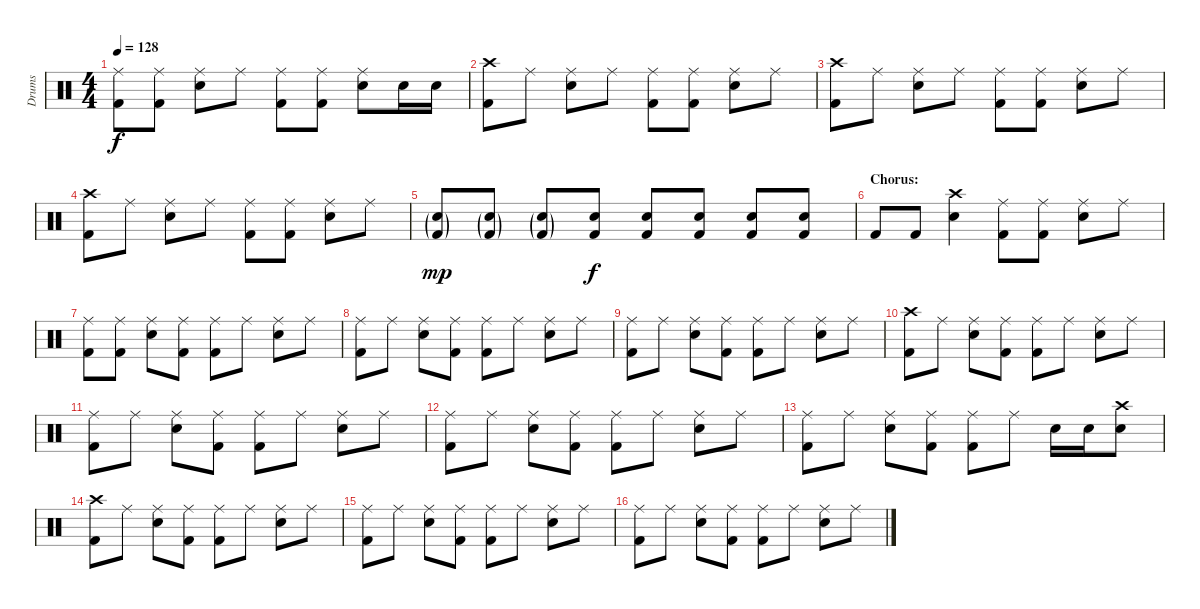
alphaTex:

\track ("Drums" "Drums") {instrument percussion}
\staff {score}
\articulation defaults
\ts (4 4)
\tempo 128
\clef neutral
\ks c
("Ride (middle)" "Kick (hit) 2").8{dy f} ("Ride (middle)" "Kick (hit) 2").8 ("Ride (middle)" "Electric Snare (hit)").8 "Ride (middle)".8 ("Ride (middle)" "Kick (hit) 2").8 ("Ride (middle)" "Kick (hit) 2").8 ("Ride (middle)" "Electric Snare (hit)").8 "Electric Snare (hit)".16 "Electric Snare (hit)".16 |
("Crash high (hit)" "Kick (hit) 2").8 "Ride (middle)".8 ("Ride (middle)" "Electric Snare (hit)").8 "Ride (middle)".8 ("Ride (middle)" "Kick (hit) 2").8 ("Ride (middle)" "Kick (hit) 2").8 ("Ride (middle)" "Electric Snare (hit)").8 "Ride (middle)".8 |
("Crash high (hit)" "Kick (hit) 2").8 "Ride (middle)".8 ("Ride (middle)" "Electric Snare (hit)").8 "Ride (middle)".8 ("Ride (middle)" "Kick (hit) 2").8 ("Ride (middle)" "Kick (hit) 2").8 ("Ride (middle)" "Electric Snare (hit)").8 "Ride (middle)".8 |
("Crash high (hit)" "Kick (hit) 2").8 "Ride (middle)".8 ("Ride (middle)" "Electric Snare (hit)").8 "Ride (middle)".8 ("Ride (middle)" "Kick (hit) 2").8 ("Ride (middle)" "Kick (hit) 2").8 ("Ride (middle)" "Electric Snare (hit)").8 "Ride (middle)".8 |
("Electric Snare (hit)"{g} "Kick (hit) 2"{g}).8{dy mp} ("Electric Snare (hit)"{g} "Kick (hit) 2"{g}).8 ("Electric Snare (hit)"{g} "Kick (hit) 2"{g}).8 ("Electric Snare (hit)" "Kick (hit) 2").8{dy f} ("Electric Snare (hit)" "Kick (hit) 2").8 ("Electric Snare (hit)" "Kick (hit) 2").8 ("Electric Snare (hit)" "Kick (hit) 2").8 ("Electric Snare (hit)" "Kick (hit) 2").8 |
\section ("" "Chorus:")
"Kick (hit) 2".8 "Kick (hit) 2".8 ("Crash high (hit)" "Electric Snare (hit)").4 ("Ride (middle)" "Kick (hit) 2").8 ("Ride (middle)" "Kick (hit) 2").8 ("Ride (middle)" "Electric Snare (hit)").8 "Ride (middle)".8 |
("Ride (middle)" "Kick (hit) 2").8 ("Ride (middle)" "Kick (hit) 2").8 ("Ride (middle)" "Electric Snare (hit)").8 ("Ride (middle)" "Kick (hit) 2").8 ("Ride (middle)" "Kick (hit) 2").8 "Ride (middle)".8 ("Ride (middle)" "Electric Snare (hit)").8 "Ride (middle)".8 |
("Ride (middle)" "Kick (hit) 2").8 "Ride (middle)".8 ("Ride (middle)" "Electric Snare (hit)").8 ("Ride (middle)" "Kick (hit) 2").8 ("Ride (middle)" "Kick (hit) 2").8 "Ride (middle)".8 ("Ride (middle)" "Electric Snare (hit)").8 "Ride (middle)".8 |
("Ride (middle)" "Kick (hit) 2").8 "Ride (middle)".8 ("Ride (middle)" "Electric Snare (hit)").8 ("Ride (middle)" "Kick (hit) 2").8 ("Ride (middle)" "Kick (hit) 2").8 "Ride (middle)".8 ("Ride (middle)" "Electric Snare (hit)").8 "Ride (middle)".8 |
("Crash high (hit)" "Kick (hit) 2").8 "Ride (middle)".8 ("Ride (middle)" "Electric Snare (hit)").8 ("Ride (middle)" "Kick (hit) 2").8 ("Ride (middle)" "Kick (hit) 2").8 "Ride (middle)".8 ("Ride (middle)" "Electric Snare (hit)").8 "Ride (middle)".8 |
("Ride (middle)" "Kick (hit) 2").8 "Ride (middle)".8 ("Ride (middle)" "Electric Snare (hit)").8 ("Ride (middle)" "Kick (hit) 2").8 ("Ride (middle)" "Kick (hit) 2").8 "Ride (middle)".8 ("Ride (middle)" "Electric Snare (hit)").8 "Ride (middle)".8 |
("Ride (middle)" "Kick (hit) 2").8 "Ride (middle)".8 ("Ride (middle)" "Electric Snare (hit)").8 ("Ride (middle)" "Kick (hit) 2").8 ("Ride (middle)" "Kick (hit) 2").8 "Ride (middle)".8 ("Ride (middle)" "Electric Snare (hit)").8 "Ride (middle)".8 |
("Ride (middle)" "Kick (hit) 2").8 "Ride (middle)".8 ("Ride (middle)" "Electric Snare (hit)").8 ("Ride (middle)" "Kick (hit) 2").8 ("Ride (middle)" "Kick (hit) 2").8 "Ride (middle)".8 "Electric Snare (hit)".16 "Electric Snare (hit)".16 ("Crash high (hit)" "Electric Snare (hit)").8 |
("Crash high (hit)" "Kick (hit) 2").8 "Ride (middle)".8 ("Ride (middle)" "Electric Snare (hit)").8 ("Ride (middle)" "Kick (hit) 2").8 ("Ride (middle)" "Kick (hit) 2").8 "Ride (middle)".8 ("Ride (middle)" "Electric Snare (hit)").8 "Ride (middle)".8 |
("Ride (middle)" "Kick (hit) 2").8 "Ride (middle)".8 ("Ride (middle)" "Electric Snare (hit)").8 ("Ride (middle)" "Kick (hit) 2").8 ("Ride (middle)" "Kick (hit) 2").8 "Ride (middle)".8 ("Ride (middle)" "Electric Snare (hit)").8 "Ride (middle)".8 |
("Ride (middle)" "Kick (hit) 2").8 "Ride (middle)".8 ("Ride (middle)" "Electric Snare (hit)").8 ("Ride (middle)" "Kick (hit) 2").8 ("Ride (middle)" "Kick (hit) 2").8 "Ride (middle)".8 ("Ride (middle)" "Electric Snare (hit)").8 "Ride (middle)".8
